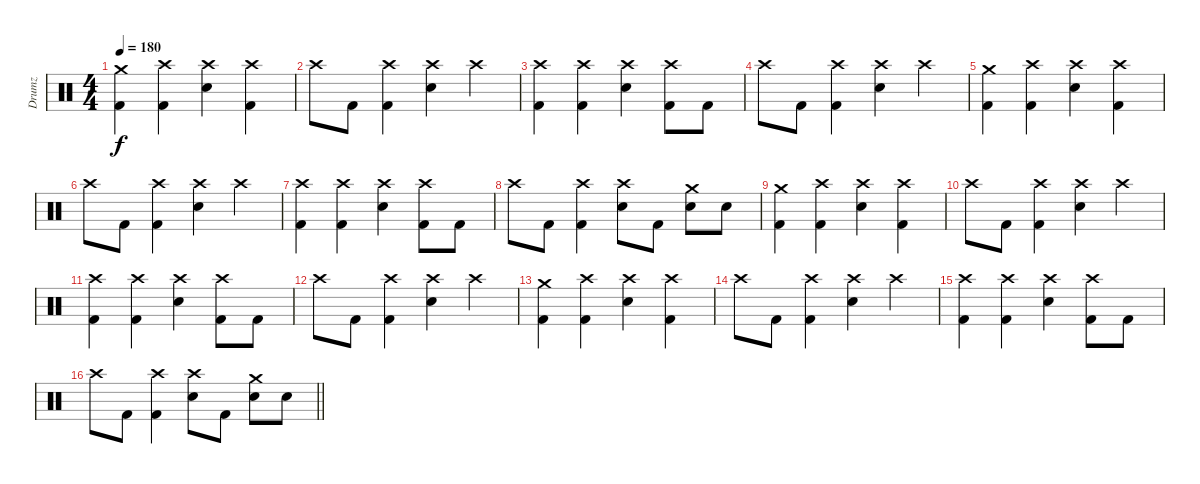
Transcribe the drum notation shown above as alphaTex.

\track ("Drumz" "Drumz") {instrument percussion}
\staff {score}
\articulation defaults
\ts (4 4)
\section ("" "")
\tempo 180
\clef neutral
\ks c
("Crash medium (hit)" "Kick (hit) 2").4{dy f} ("Crash high (hit)" "Kick (hit) 2").4 ("Crash high (hit)" "Electric Snare (hit)").4 ("Crash high (hit)" "Kick (hit) 2").4 |
"Crash high (hit)".8 "Kick (hit) 2".8 ("Crash high (hit)" "Kick (hit) 2").4 ("Crash high (hit)" "Electric Snare (hit)").4 "Crash high (hit)".4 |
("Crash high (hit)" "Kick (hit) 2").4 ("Crash high (hit)" "Kick (hit) 2").4 ("Crash high (hit)" "Electric Snare (hit)").4 ("Crash high (hit)" "Kick (hit) 2").8 "Kick (hit) 2".8 |
"Crash high (hit)".8 "Kick (hit) 2".8 ("Crash high (hit)" "Kick (hit) 2").4 ("Crash high (hit)" "Electric Snare (hit)").4 "Crash high (hit)".4 |
("Crash medium (hit)" "Kick (hit) 2").4 ("Crash high (hit)" "Kick (hit) 2").4 ("Crash high (hit)" "Electric Snare (hit)").4 ("Crash high (hit)" "Kick (hit) 2").4 |
"Crash high (hit)".8 "Kick (hit) 2".8 ("Crash high (hit)" "Kick (hit) 2").4 ("Crash high (hit)" "Electric Snare (hit)").4 "Crash high (hit)".4 |
("Crash high (hit)" "Kick (hit) 2").4 ("Crash high (hit)" "Kick (hit) 2").4 ("Crash high (hit)" "Electric Snare (hit)").4 ("Crash high (hit)" "Kick (hit) 2").8 "Kick (hit) 2".8 |
"Crash high (hit)".8 "Kick (hit) 2".8 ("Crash high (hit)" "Kick (hit) 2").4 ("Crash high (hit)" "Electric Snare (hit)").8 "Kick (hit) 2".8 ("Crash medium (hit)" "Electric Snare (hit)").8 "Electric Snare (hit)".8 |
("Crash medium (hit)" "Kick (hit) 2").4 ("Crash high (hit)" "Kick (hit) 2").4 ("Crash high (hit)" "Electric Snare (hit)").4 ("Crash high (hit)" "Kick (hit) 2").4 |
"Crash high (hit)".8 "Kick (hit) 2".8 ("Crash high (hit)" "Kick (hit) 2").4 ("Crash high (hit)" "Electric Snare (hit)").4 "Crash high (hit)".4 |
("Crash high (hit)" "Kick (hit) 2").4 ("Crash high (hit)" "Kick (hit) 2").4 ("Crash high (hit)" "Electric Snare (hit)").4 ("Crash high (hit)" "Kick (hit) 2").8 "Kick (hit) 2".8 |
"Crash high (hit)".8 "Kick (hit) 2".8 ("Crash high (hit)" "Kick (hit) 2").4 ("Crash high (hit)" "Electric Snare (hit)").4 "Crash high (hit)".4 |
("Crash medium (hit)" "Kick (hit) 2").4 ("Crash high (hit)" "Kick (hit) 2").4 ("Crash high (hit)" "Electric Snare (hit)").4 ("Crash high (hit)" "Kick (hit) 2").4 |
"Crash high (hit)".8 "Kick (hit) 2".8 ("Crash high (hit)" "Kick (hit) 2").4 ("Crash high (hit)" "Electric Snare (hit)").4 "Crash high (hit)".4 |
("Crash high (hit)" "Kick (hit) 2").4 ("Crash high (hit)" "Kick (hit) 2").4 ("Crash high (hit)" "Electric Snare (hit)").4 ("Crash high (hit)" "Kick (hit) 2").8 "Kick (hit) 2".8 |
\barLineRight lightlight "Crash high (hit)".8 "Kick (hit) 2".8
("Crash high (hit)" "Kick (hit) 2").4 ("Crash high (hit)" "Electric Snare (hit)").8 "Kick (hit) 2".8 ("Crash medium (hit)" "Electric Snare (hit)").8 "Electric Snare (hit)".8
